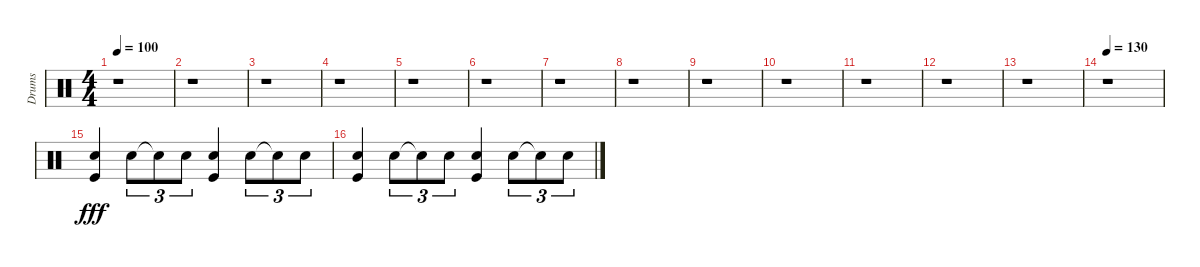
\track ("Drums" "Drums") {instrument percussion}
\staff {score}
\articulation defaults
\ts (4 4)
\tempo 100
\clef neutral
\ks c
r.1{dy fff} |
r.1 |
r.1 |
r.1 |
r.1 |
r.1 |
r.1 |
r.1 |
r.1 |
r.1 |
r.1 |
r.1 |
r.1 |
\tempo 130
r.1 |
("Kick (hit)" "Snare (hit) 2").4 "Hand Clap (hit)".8{tu (3 2)} "Snare (hit)"{t}.8{tu (3 2)} "Snare (hit) 2".8{tu (3 2)} ("Kick (hit)" "Snare (hit) 2").4 "Hand Clap (hit)".8{tu (3 2)} "Snare (hit)"{t}.8{tu (3 2)} "Snare (hit) 2".8{tu (3 2)} |
("Kick (hit)" "Snare (hit) 2").4 "Hand Clap (hit)".8{tu (3 2)} "Snare (hit)"{t}.8{tu (3 2)} "Snare (hit) 2".8{tu (3 2)} ("Kick (hit)" "Snare (hit) 2").4 "Hand Clap (hit)".8{tu (3 2)} "Snare (hit)"{t}.8{tu (3 2)} "Snare (hit) 2".8{tu (3 2)}
